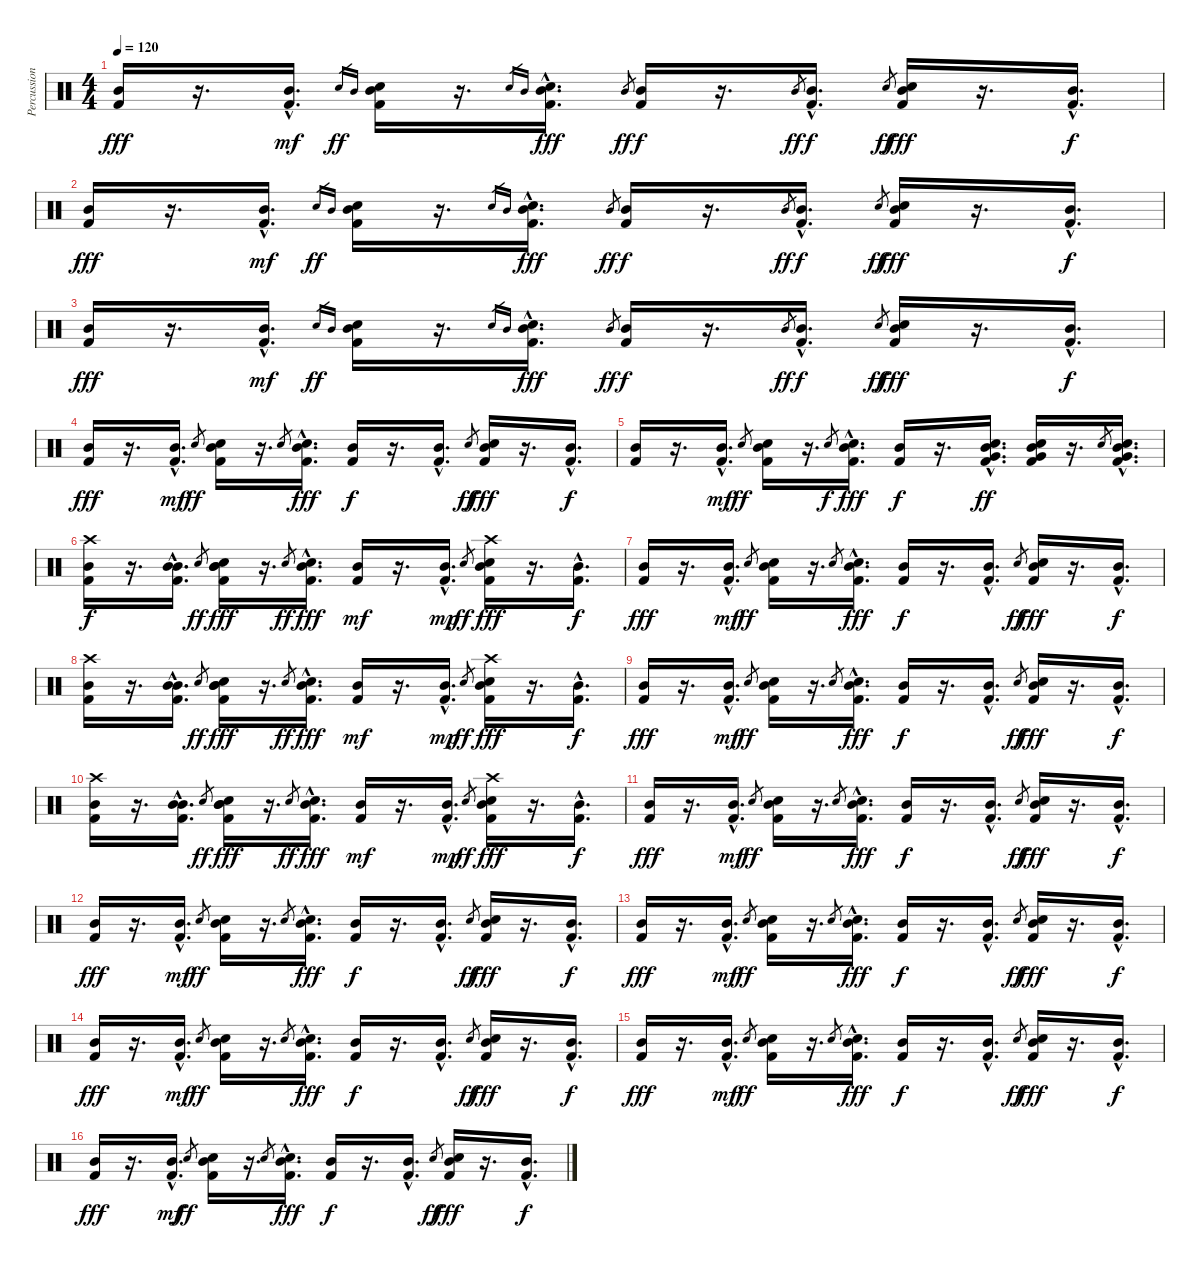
\track ("Percussion" "Percussion") {instrument percussion}
\staff {score}
\articulation defaults
\ts (4 4)
\tempo 120
\clef neutral
\ks c
("Mid Tom (hit)" "Kick (hit) 2").16{dy fff} r.16{d} ("Mid Tom (hit)"{hac} "Kick (hit) 2"{hac}).16{d dy mf} "Hand Clap (hit)".16{gr dy ff} "Mid Tom (hit)".16{gr} ("Mid Tom (hit)" "Snare (hit) 2" "Kick (hit) 2").16 r.16{d} "Hand Clap (hit)".16{gr} "Mid Tom (hit)".16{gr} ("Mid Tom (hit)"{hac} "Snare (hit) 2"{hac} "Kick (hit) 2"{hac}).16{d dy fff} "Mid Tom (hit)".8{gr dy ff} ("Mid Tom (hit)" "Kick (hit) 2").16{dy f} r.16{d} "Mid Tom (hit)".8{gr dy ff} ("Mid Tom (hit)"{hac} "Kick (hit) 2"{hac}).16{d dy f} "Hand Clap (hit)".8{gr dy ff} ("Mid Tom (hit)" "Snare (hit) 2" "Kick (hit) 2").16{dy fff} r.16{d} ("Mid Tom (hit)" "Kick (hit) 2"{hac}).16{d dy f} |
("Mid Tom (hit)" "Kick (hit) 2").16{dy fff} r.16{d} ("Mid Tom (hit)"{hac} "Kick (hit) 2"{hac}).16{d dy mf} "Hand Clap (hit)".16{gr dy ff} "Mid Tom (hit)".16{gr} ("Mid Tom (hit)" "Snare (hit) 2" "Kick (hit) 2").16 r.16{d} "Hand Clap (hit)".16{gr} "Mid Tom (hit)".16{gr} ("Mid Tom (hit)"{hac} "Snare (hit) 2"{hac} "Kick (hit) 2"{hac}).16{d dy fff} "Mid Tom (hit)".8{gr dy ff} ("Mid Tom (hit)" "Kick (hit) 2").16{dy f} r.16{d} "Mid Tom (hit)".8{gr dy ff} ("Mid Tom (hit)"{hac} "Kick (hit) 2"{hac}).16{d dy f} "Hand Clap (hit)".8{gr dy ff} ("Mid Tom (hit)" "Snare (hit) 2" "Kick (hit) 2").16{dy fff} r.16{d} ("Mid Tom (hit)" "Kick (hit) 2"{hac}).16{d dy f} |
("Mid Tom (hit)" "Kick (hit) 2").16{dy fff} r.16{d} ("Mid Tom (hit)"{hac} "Kick (hit) 2"{hac}).16{d dy mf} "Hand Clap (hit)".16{gr dy ff} "Mid Tom (hit)".16{gr} ("Mid Tom (hit)" "Snare (hit) 2" "Kick (hit) 2").16 r.16{d} "Hand Clap (hit)".16{gr} "Mid Tom (hit)".16{gr} ("Mid Tom (hit)"{hac} "Snare (hit) 2"{hac} "Kick (hit) 2"{hac}).16{d dy fff} "Mid Tom (hit)".8{gr dy ff} ("Mid Tom (hit)" "Kick (hit) 2").16{dy f} r.16{d} "Mid Tom (hit)".8{gr dy ff} ("Mid Tom (hit)"{hac} "Kick (hit) 2"{hac}).16{d dy f} "Hand Clap (hit)".8{gr dy ff} ("Mid Tom (hit)" "Snare (hit) 2" "Kick (hit) 2").16{dy fff} r.16{d} ("Mid Tom (hit)" "Kick (hit) 2"{hac}).16{d dy f} |
("Mid Tom (hit)" "Kick (hit) 2").16{dy fff} r.16{d} ("Mid Tom (hit)"{hac} "Kick (hit) 2"{hac}).16{d dy mf} "Hand Clap (hit)".8{gr dy ff} ("Mid Tom (hit)" "Snare (hit) 2" "Kick (hit) 2").16 r.16{d} "Hand Clap (hit)".8{gr} ("Mid Tom (hit)"{hac} "Snare (hit) 2"{hac} "Kick (hit) 2"{hac}).16{d dy fff} ("Mid Tom (hit)" "Kick (hit) 2").16{dy f} r.16{d} ("Mid Tom (hit)"{hac} "Kick (hit) 2"{hac}).16{d} "Hand Clap (hit)".8{gr dy ff} ("Mid Tom (hit)" "Snare (hit) 2" "Kick (hit) 2").16{dy fff} r.16{d} ("Mid Tom (hit)" "Kick (hit) 2"{hac}).16{d dy f} |
("Mid Tom (hit)" "Kick (hit) 2").16 r.16{d} ("Mid Tom (hit)"{hac} "Kick (hit) 2"{hac}).16{d dy mf} "Hand Clap (hit)".8{gr dy ff} ("Mid Tom (hit)" "Snare (hit) 2" "Kick (hit) 2").16 r.16{d} "Hand Clap (hit)".8{gr dy f} ("Mid Tom (hit)"{hac} "Snare (hit) 2"{hac} "Kick (hit) 2"{hac}).16{d dy fff} ("Mid Tom (hit)" "Kick (hit) 2").16{dy f} r.16{d} ("Mid Tom (hit)"{hac} "Snare (hit) 2"{hac} "Very Low Tom (hit)"{hac} "Kick (hit) 2"{hac}).16{d dy ff} ("Mid Tom (hit)" "Snare (hit) 2" "Very Low Tom (hit)" "Kick (hit) 2").16 r.16{d} "Hand Clap (hit)".8{gr} ("Mid Tom (hit)" "Snare (hit) 2"{hac} "Very Low Tom (hit)"{hac} "Kick (hit) 2"{hac}).16{d} |
("Crash high (hit)" "Mid Tom (hit)" "Kick (hit) 2").16{dy f} r.16{d} ("Mid Tom (hit)"{hac} "Mid Tom (hit)"{hac} "Kick (hit) 2"{hac}).16{d} "Hand Clap (hit)".8{gr dy ff} ("Mid Tom (hit)" "Snare (hit) 2" "Mid Tom (hit)" "Kick (hit) 2").16{dy fff} r.16{d} "Hand Clap (hit)".8{gr dy ff} ("Mid Tom (hit)"{hac} "Snare (hit) 2" "Kick (hit) 2"{hac}).16{d dy fff} ("Mid Tom (hit)" "Kick (hit) 2").16{dy mf} r.16{d} ("Mid Tom (hit)"{hac} "Kick (hit) 2"{hac}).16{d dy mp} "Hand Clap (hit)".8{gr dy ff} ("Crash high (hit)" "Mid Tom (hit)" "Snare (hit) 2" "Kick (hit) 2").16{dy fff} r.16{d} ("Mid Tom (hit)" "Kick (hit) 2"{hac}).16{d dy f} |
("Mid Tom (hit)" "Kick (hit) 2").16{dy fff} r.16{d} ("Mid Tom (hit)"{hac} "Kick (hit) 2"{hac}).16{d dy mf} "Hand Clap (hit)".8{gr dy ff} ("Mid Tom (hit)" "Snare (hit) 2" "Kick (hit) 2").16 r.16{d} "Hand Clap (hit)".8{gr} ("Mid Tom (hit)"{hac} "Snare (hit) 2"{hac} "Kick (hit) 2"{hac}).16{d dy fff} ("Mid Tom (hit)" "Kick (hit) 2").16{dy f} r.16{d} ("Mid Tom (hit)"{hac} "Kick (hit) 2"{hac}).16{d} "Hand Clap (hit)".8{gr dy ff} ("Mid Tom (hit)" "Snare (hit) 2" "Kick (hit) 2").16{dy fff} r.16{d} ("Mid Tom (hit)" "Kick (hit) 2"{hac}).16{d dy f} |
("Crash high (hit)" "Mid Tom (hit)" "Kick (hit) 2").16 r.16{d} ("Mid Tom (hit)"{hac} "Mid Tom (hit)"{hac} "Kick (hit) 2"{hac}).16{d} "Hand Clap (hit)".8{gr dy ff} ("Mid Tom (hit)" "Snare (hit) 2" "Mid Tom (hit)" "Kick (hit) 2").16{dy fff} r.16{d} "Hand Clap (hit)".8{gr dy ff} ("Mid Tom (hit)"{hac} "Snare (hit) 2" "Kick (hit) 2"{hac}).16{d dy fff} ("Mid Tom (hit)" "Kick (hit) 2").16{dy mf} r.16{d} ("Mid Tom (hit)"{hac} "Kick (hit) 2"{hac}).16{d dy mp} "Hand Clap (hit)".8{gr dy ff} ("Crash high (hit)" "Mid Tom (hit)" "Snare (hit) 2" "Kick (hit) 2").16{dy fff} r.16{d} ("Mid Tom (hit)" "Kick (hit) 2"{hac}).16{d dy f} |
("Mid Tom (hit)" "Kick (hit) 2").16{dy fff} r.16{d} ("Mid Tom (hit)"{hac} "Kick (hit) 2"{hac}).16{d dy mf} "Hand Clap (hit)".8{gr dy ff} ("Mid Tom (hit)" "Snare (hit) 2" "Kick (hit) 2").16 r.16{d} "Hand Clap (hit)".8{gr} ("Mid Tom (hit)"{hac} "Snare (hit) 2"{hac} "Kick (hit) 2"{hac}).16{d dy fff} ("Mid Tom (hit)" "Kick (hit) 2").16{dy f} r.16{d} ("Mid Tom (hit)"{hac} "Kick (hit) 2"{hac}).16{d} "Hand Clap (hit)".8{gr dy ff} ("Mid Tom (hit)" "Snare (hit) 2" "Kick (hit) 2").16{dy fff} r.16{d} ("Mid Tom (hit)" "Kick (hit) 2"{hac}).16{d dy f} |
("Crash high (hit)" "Mid Tom (hit)" "Kick (hit) 2").16 r.16{d} ("Mid Tom (hit)"{hac} "Mid Tom (hit)"{hac} "Kick (hit) 2"{hac}).16{d} "Hand Clap (hit)".8{gr dy ff} ("Mid Tom (hit)" "Snare (hit) 2" "Mid Tom (hit)" "Kick (hit) 2").16{dy fff} r.16{d} "Hand Clap (hit)".8{gr dy ff} ("Mid Tom (hit)"{hac} "Snare (hit) 2" "Kick (hit) 2"{hac}).16{d dy fff} ("Mid Tom (hit)" "Kick (hit) 2").16{dy mf} r.16{d} ("Mid Tom (hit)"{hac} "Kick (hit) 2"{hac}).16{d dy mp} "Hand Clap (hit)".8{gr dy ff} ("Crash high (hit)" "Mid Tom (hit)" "Snare (hit) 2" "Kick (hit) 2").16{dy fff} r.16{d} ("Mid Tom (hit)" "Kick (hit) 2"{hac}).16{d dy f} |
("Mid Tom (hit)" "Kick (hit) 2").16{dy fff} r.16{d} ("Mid Tom (hit)"{hac} "Kick (hit) 2"{hac}).16{d dy mf} "Hand Clap (hit)".8{gr dy ff} ("Mid Tom (hit)" "Snare (hit) 2" "Kick (hit) 2").16 r.16{d} "Hand Clap (hit)".8{gr} ("Mid Tom (hit)"{hac} "Snare (hit) 2"{hac} "Kick (hit) 2"{hac}).16{d dy fff} ("Mid Tom (hit)" "Kick (hit) 2").16{dy f} r.16{d} ("Mid Tom (hit)"{hac} "Kick (hit) 2"{hac}).16{d} "Hand Clap (hit)".8{gr dy ff} ("Mid Tom (hit)" "Snare (hit) 2" "Kick (hit) 2").16{dy fff} r.16{d} ("Mid Tom (hit)" "Kick (hit) 2"{hac}).16{d dy f} |
("Mid Tom (hit)" "Kick (hit) 2").16{dy fff} r.16{d} ("Mid Tom (hit)"{hac} "Kick (hit) 2"{hac}).16{d dy mf} "Hand Clap (hit)".8{gr dy ff} ("Mid Tom (hit)" "Snare (hit) 2" "Kick (hit) 2").16 r.16{d} "Hand Clap (hit)".8{gr} ("Mid Tom (hit)"{hac} "Snare (hit) 2"{hac} "Kick (hit) 2"{hac}).16{d dy fff} ("Mid Tom (hit)" "Kick (hit) 2").16{dy f} r.16{d} ("Mid Tom (hit)"{hac} "Kick (hit) 2"{hac}).16{d} "Hand Clap (hit)".8{gr dy ff} ("Mid Tom (hit)" "Snare (hit) 2" "Kick (hit) 2").16{dy fff} r.16{d} ("Mid Tom (hit)" "Kick (hit) 2"{hac}).16{d dy f} |
("Mid Tom (hit)" "Kick (hit) 2").16{dy fff} r.16{d} ("Mid Tom (hit)"{hac} "Kick (hit) 2"{hac}).16{d dy mf} "Hand Clap (hit)".8{gr dy ff} ("Mid Tom (hit)" "Snare (hit) 2" "Kick (hit) 2").16 r.16{d} "Hand Clap (hit)".8{gr} ("Mid Tom (hit)"{hac} "Snare (hit) 2"{hac} "Kick (hit) 2"{hac}).16{d dy fff} ("Mid Tom (hit)" "Kick (hit) 2").16{dy f} r.16{d} ("Mid Tom (hit)"{hac} "Kick (hit) 2"{hac}).16{d} "Hand Clap (hit)".8{gr dy ff} ("Mid Tom (hit)" "Snare (hit) 2" "Kick (hit) 2").16{dy fff} r.16{d} ("Mid Tom (hit)" "Kick (hit) 2"{hac}).16{d dy f} |
("Mid Tom (hit)" "Kick (hit) 2").16{dy fff balance 11} r.16{d} ("Mid Tom (hit)"{hac} "Kick (hit) 2"{hac}).16{d dy mf} "Hand Clap (hit)".8{gr dy ff} ("Mid Tom (hit)" "Snare (hit) 2" "Kick (hit) 2").16 r.16{d} "Hand Clap (hit)".8{gr} ("Mid Tom (hit)"{hac} "Snare (hit) 2"{hac} "Kick (hit) 2"{hac}).16{d dy fff} ("Mid Tom (hit)" "Kick (hit) 2").16{dy f} r.16{d} ("Mid Tom (hit)"{hac} "Kick (hit) 2"{hac}).16{d} "Hand Clap (hit)".8{gr dy ff} ("Mid Tom (hit)" "Snare (hit) 2" "Kick (hit) 2").16{dy fff} r.16{d} ("Mid Tom (hit)" "Kick (hit) 2"{hac}).16{d dy f} |
("Mid Tom (hit)" "Kick (hit) 2").16{dy fff} r.16{d} ("Mid Tom (hit)"{hac} "Kick (hit) 2"{hac}).16{d dy mf} "Hand Clap (hit)".8{gr dy ff} ("Mid Tom (hit)" "Snare (hit) 2" "Kick (hit) 2").16 r.16{d} "Hand Clap (hit)".8{gr} ("Mid Tom (hit)"{hac} "Snare (hit) 2"{hac} "Kick (hit) 2"{hac}).16{d dy fff} ("Mid Tom (hit)" "Kick (hit) 2").16{dy f} r.16{d} ("Mid Tom (hit)"{hac} "Kick (hit) 2"{hac}).16{d} "Hand Clap (hit)".8{gr dy ff} ("Mid Tom (hit)" "Snare (hit) 2" "Kick (hit) 2").16{dy fff} r.16{d} ("Mid Tom (hit)" "Kick (hit) 2"{hac}).16{d dy f} |
("Mid Tom (hit)" "Kick (hit) 2").16{dy fff balance 5} r.16{d} ("Mid Tom (hit)"{hac} "Kick (hit) 2"{hac}).16{d dy mf} "Hand Clap (hit)".8{gr dy ff} ("Mid Tom (hit)" "Snare (hit) 2" "Kick (hit) 2").16 r.16{d} "Hand Clap (hit)".8{gr} ("Mid Tom (hit)"{hac} "Snare (hit) 2"{hac} "Kick (hit) 2"{hac}).16{d dy fff} ("Mid Tom (hit)" "Kick (hit) 2").16{dy f} r.16{d} ("Mid Tom (hit)"{hac} "Kick (hit) 2"{hac}).16{d} "Hand Clap (hit)".8{gr dy ff} ("Mid Tom (hit)" "Snare (hit) 2" "Kick (hit) 2").16{dy fff} r.16{d} ("Mid Tom (hit)" "Kick (hit) 2"{hac}).16{d dy f}
